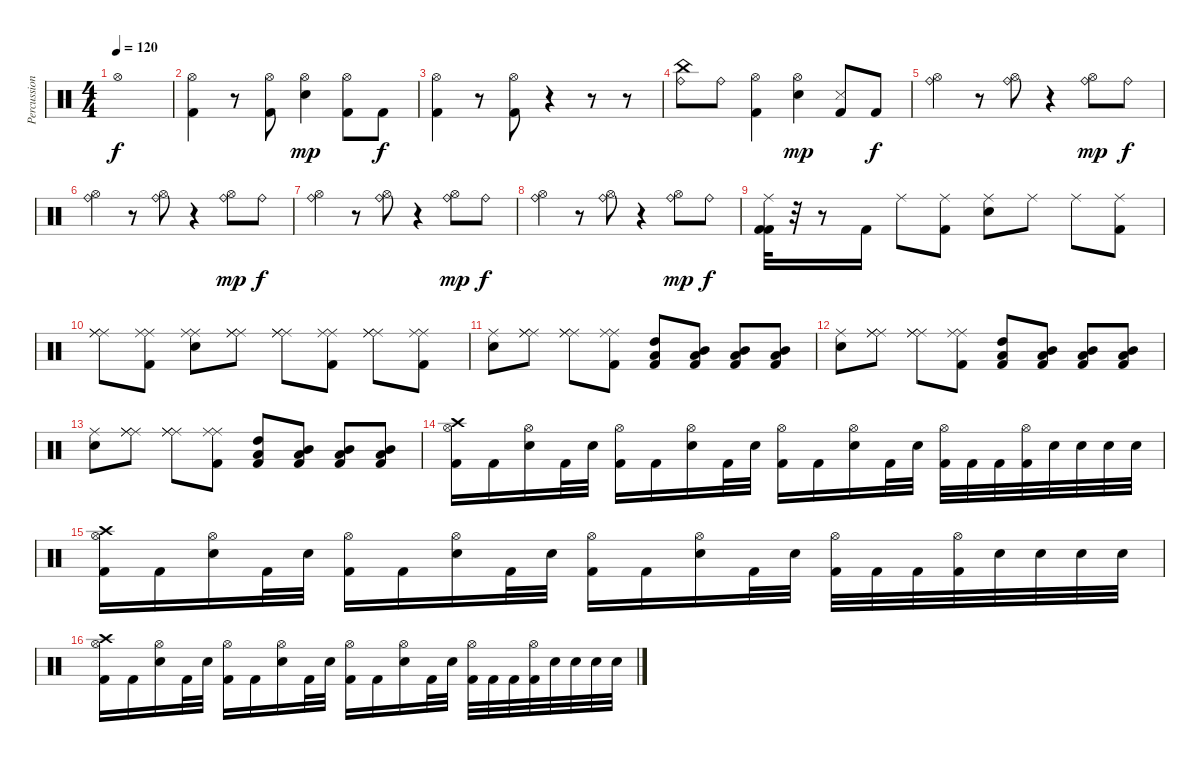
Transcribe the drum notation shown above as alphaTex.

\track ("Percussions" "Percussion") {instrument percussion}
\staff {score}
\articulation defaults
\ts (4 4)
\tempo 120
\clef neutral
\ks c "Hi-Hat (open)".1{dy f}
|
("Hi-Hat (open)" "Kick (hit) 2").4 r.8 ("Hi-Hat (open)" "Kick (hit) 2").8 ("Hi-Hat (open)" "Electric Snare (hit)").4{dy mp} ("Hi-Hat (open)" "Kick (hit) 2").8 "Kick (hit) 2".8{dy f} |
("Hi-Hat (open)" "Kick (hit) 2").4 r.8 ("Hi-Hat (open)" "Kick (hit) 2").8 r.4 r.8 r.8 |
("China (hit)" "Ride (bell)").8 "Ride (bell)".8 ("Hi-Hat (open)" "Kick (hit) 2").4 ("Hi-Hat (open)" "Electric Snare (hit)").4{dy mp} ("Snare (side stick) 3" "Kick (hit) 2").8 "Kick (hit) 2".8{dy f} |
("Hi-Hat (open)" "Ride (bell)").4 r.8 ("Hi-Hat (open)" "Ride (bell)").8 r.4 ("Hi-Hat (open)" "Ride (bell)").8{dy mp} "Ride (bell)".8{dy f} |
("Hi-Hat (open)" "Ride (bell)").4 r.8 ("Hi-Hat (open)" "Ride (bell)").8 r.4 ("Hi-Hat (open)" "Ride (bell)").8{dy mp} "Ride (bell)".8{dy f} |
("Hi-Hat (open)" "Ride (bell)").4 r.8 ("Hi-Hat (open)" "Ride (bell)").8 r.4 ("Hi-Hat (open)" "Ride (bell)").8{dy mp} "Ride (bell)".8{dy f} |
("Hi-Hat (open)" "Ride (bell)").4 r.8 ("Hi-Hat (open)" "Ride (bell)").8 r.4 ("Hi-Hat (open)" "Ride (bell)").8{dy mp} "Ride (bell)".8{dy f} |
("Ride (middle)" "Kick (hit) 2" "Kick (hit) 2").32 r.32 r.8 "Kick (hit) 2".16 "Ride (middle)".8 ("Ride (middle)" "Kick (hit) 2").8 ("Ride (middle)" "Electric Snare (hit)").8 "Ride (middle)".8 "Ride (middle)".8 ("Ride (middle)" "Kick (hit) 2").8 |
("Ride (middle)" "Ride (middle)" "Ride (middle)").8 ("Ride (middle)" "Ride (middle)" "Kick (hit) 2").8 ("Electric Snare (hit)" "Ride (middle)" "Ride (middle)").8 ("Ride (middle)" "Ride (middle)" "Ride (middle)").8 ("Ride (middle)" "Ride (middle)" "Ride (middle)").8 ("Ride (middle)" "Ride (middle)" "Kick (hit) 2").8 ("Ride (middle)" "Ride (middle)" "Ride (middle)").8 ("Ride (middle)" "Ride (middle)" "Kick (hit) 2").8 |
("Electric Snare (hit)" "Ride (middle)").8 ("Ride (middle)" "Ride (middle)" "Ride (middle)").8 ("Ride (middle)" "Ride (middle)" "Ride (middle)").8 ("Ride (middle)" "Ride (middle)" "Kick (hit) 2").8 ("High Tom (hit)" "Low Tom (hit)" "Kick (hit) 2").8 ("Mid Tom (hit)" "Low Tom (hit)" "Kick (hit) 2").8 ("Mid Tom (hit)" "Low Tom (hit)" "Kick (hit) 2").8 ("Mid Tom (hit)" "Low Tom (hit)" "Kick (hit) 2").8 |
("Electric Snare (hit)" "Ride (middle)").8 ("Ride (middle)" "Ride (middle)" "Ride (middle)").8 ("Ride (middle)" "Ride (middle)" "Ride (middle)").8 ("Ride (middle)" "Ride (middle)" "Kick (hit) 2").8 ("High Tom (hit)" "Low Tom (hit)" "Kick (hit) 2").8 ("Mid Tom (hit)" "Low Tom (hit)" "Kick (hit) 2").8 ("Mid Tom (hit)" "Low Tom (hit)" "Kick (hit) 2").8 ("Mid Tom (hit)" "Low Tom (hit)" "Kick (hit) 2").8 |
("Electric Snare (hit)" "Ride (middle)").8 ("Ride (middle)" "Ride (middle)" "Ride (middle)").8 ("Ride (middle)" "Ride (middle)" "Ride (middle)").8 ("Ride (middle)" "Ride (middle)" "Kick (hit) 2").8 ("High Tom (hit)" "Low Tom (hit)" "Kick (hit) 2").8 ("Mid Tom (hit)" "Low Tom (hit)" "Kick (hit) 2").8 ("Mid Tom (hit)" "Low Tom (hit)" "Kick (hit) 2").8 ("Mid Tom (hit)" "Low Tom (hit)" "Kick (hit) 2").8 |
("Crash high (hit)" "Hi-Hat (open)" "Kick (hit) 2").16 "Kick (hit) 2".16 ("Hi-Hat (open)" "Electric Snare (hit)").16 "Kick (hit) 2".32 "Electric Snare (hit)".32 ("Hi-Hat (open)" "Kick (hit) 2").16 "Kick (hit) 2".16 ("Hi-Hat (open)" "Electric Snare (hit)").16 "Kick (hit) 2".32 "Electric Snare (hit)".32 ("Hi-Hat (open)" "Kick (hit) 2").16 "Kick (hit) 2".16 ("Hi-Hat (open)" "Electric Snare (hit)").16 "Kick (hit) 2".32 "Electric Snare (hit)".32 ("Hi-Hat (open)" "Kick (hit) 2").32 "Kick (hit) 2".32 "Kick (hit) 2".32 ("Hi-Hat (open)" "Kick (hit) 2").32 "Electric Snare (hit)".32 "Electric Snare (hit)".32 "Electric Snare (hit)".32 "Electric Snare (hit)".32 |
("Crash high (hit)" "Hi-Hat (open)" "Kick (hit) 2").16 "Kick (hit) 2".16 ("Hi-Hat (open)" "Electric Snare (hit)").16 "Kick (hit) 2".32 "Electric Snare (hit)".32 ("Hi-Hat (open)" "Kick (hit) 2").16 "Kick (hit) 2".16 ("Hi-Hat (open)" "Electric Snare (hit)").16 "Kick (hit) 2".32 "Electric Snare (hit)".32 ("Hi-Hat (open)" "Kick (hit) 2").16 "Kick (hit) 2".16 ("Hi-Hat (open)" "Electric Snare (hit)").16 "Kick (hit) 2".32 "Electric Snare (hit)".32 ("Hi-Hat (open)" "Kick (hit) 2").32 "Kick (hit) 2".32 "Kick (hit) 2".32 ("Hi-Hat (open)" "Kick (hit) 2").32 "Electric Snare (hit)".32 "Electric Snare (hit)".32 "Electric Snare (hit)".32 "Electric Snare (hit)".32 |
("Crash high (hit)" "Hi-Hat (open)" "Kick (hit) 2").16 "Kick (hit) 2".16 ("Hi-Hat (open)" "Electric Snare (hit)").16 "Kick (hit) 2".32 "Electric Snare (hit)".32 ("Hi-Hat (open)" "Kick (hit) 2").16 "Kick (hit) 2".16 ("Hi-Hat (open)" "Electric Snare (hit)").16 "Kick (hit) 2".32 "Electric Snare (hit)".32 ("Hi-Hat (open)" "Kick (hit) 2").16 "Kick (hit) 2".16 ("Hi-Hat (open)" "Electric Snare (hit)").16 "Kick (hit) 2".32 "Electric Snare (hit)".32 ("Hi-Hat (open)" "Kick (hit) 2").32 "Kick (hit) 2".32 "Kick (hit) 2".32 ("Hi-Hat (open)" "Kick (hit) 2").32 "Electric Snare (hit)".32 "Electric Snare (hit)".32 "Electric Snare (hit)".32 "Electric Snare (hit)".32
